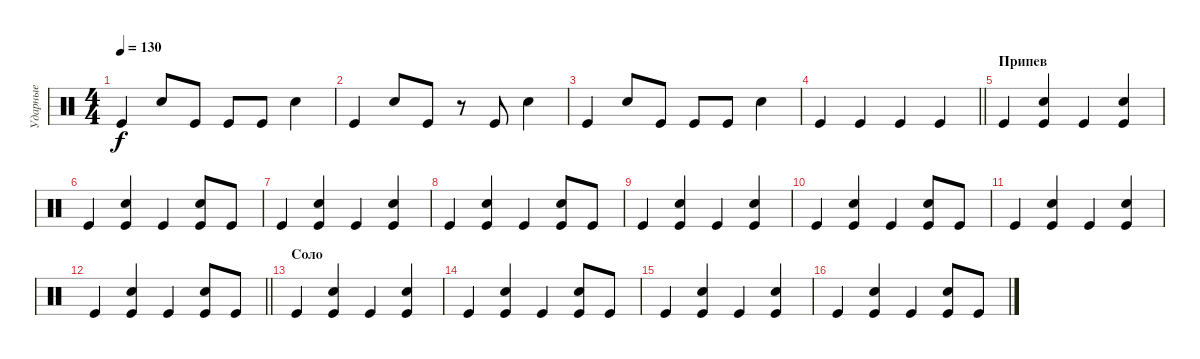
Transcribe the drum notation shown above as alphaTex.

\track ("Ударные" "Ударные") {instrument percussion}
\staff {score}
\articulation defaults
\ts (4 4)
\tempo 130
\clef neutral
\ks c "Kick (hit)".4{dy f} "Snare (hit) 2".8 "Kick (hit)".8 "Kick (hit)".8 "Kick (hit)".8 "Snare (hit) 2".4
|
"Kick (hit)".4 "Snare (hit) 2".8 "Kick (hit)".8 r.8 "Kick (hit)".8 "Snare (hit) 2".4 |
"Kick (hit)".4 "Snare (hit) 2".8 "Kick (hit)".8 "Kick (hit)".8 "Kick (hit)".8 "Snare (hit) 2".4 |
\barLineRight lightlight "Kick (hit)".4 "Kick (hit)".4 "Kick (hit)".4 "Kick (hit)".4
|
\section ("" "Припев")
"Kick (hit)".4 ("Kick (hit)" "Snare (hit) 2").4 "Kick (hit)".4 ("Kick (hit)" "Snare (hit) 2").4 |
"Kick (hit)".4 ("Kick (hit)" "Snare (hit) 2").4 "Kick (hit)".4 ("Kick (hit)" "Snare (hit) 2").8 "Kick (hit)".8 |
"Kick (hit)".4 ("Kick (hit)" "Snare (hit) 2").4 "Kick (hit)".4 ("Kick (hit)" "Snare (hit) 2").4 |
"Kick (hit)".4 ("Kick (hit)" "Snare (hit) 2").4 "Kick (hit)".4 ("Kick (hit)" "Snare (hit) 2").8 "Kick (hit)".8 |
"Kick (hit)".4 ("Kick (hit)" "Snare (hit) 2").4 "Kick (hit)".4 ("Kick (hit)" "Snare (hit) 2").4 |
"Kick (hit)".4 ("Snare (hit) 2" "Kick (hit)").4 "Kick (hit)".4 ("Snare (hit) 2" "Kick (hit)").8 "Kick (hit)".8 |
"Kick (hit)".4 ("Snare (hit) 2" "Kick (hit)").4 "Kick (hit)".4 ("Snare (hit) 2" "Kick (hit)").4 |
\barLineRight lightlight "Kick (hit)".4
("Snare (hit) 2" "Kick (hit)").4 "Kick (hit)".4 ("Snare (hit) 2" "Kick (hit)").8 "Kick (hit)".8 |
\section ("" "Соло")
"Kick (hit)".4 ("Kick (hit)" "Snare (hit) 2").4 "Kick (hit)".4 ("Kick (hit)" "Snare (hit) 2").4 |
"Kick (hit)".4 ("Kick (hit)" "Snare (hit) 2").4 "Kick (hit)".4 ("Kick (hit)" "Snare (hit) 2").8 "Kick (hit)".8 |
"Kick (hit)".4 ("Kick (hit)" "Snare (hit) 2").4 "Kick (hit)".4 ("Kick (hit)" "Snare (hit) 2").4 |
"Kick (hit)".4 ("Kick (hit)" "Snare (hit) 2").4 "Kick (hit)".4 ("Kick (hit)" "Snare (hit) 2").8 "Kick (hit)".8
